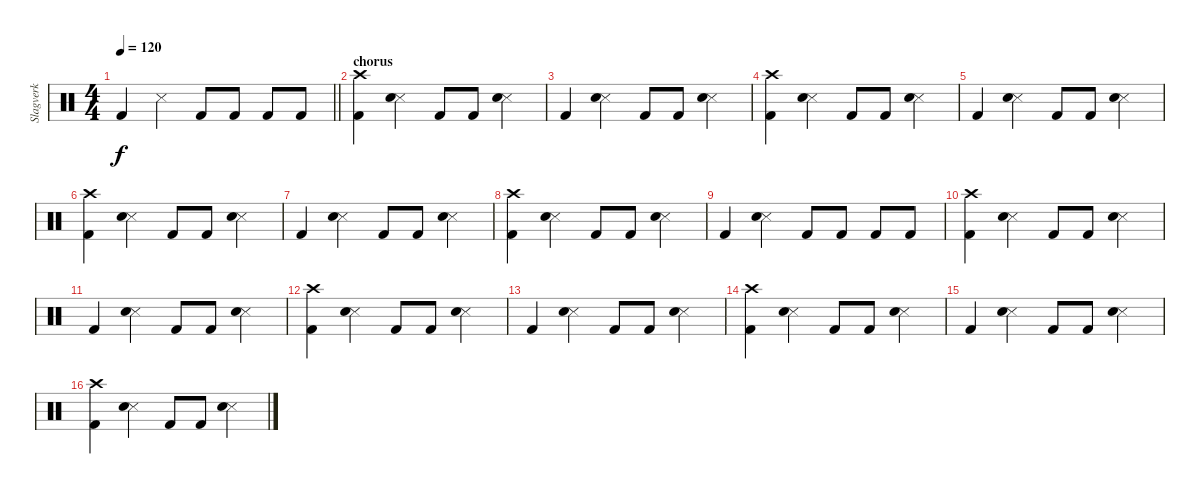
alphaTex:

\track ("Slagverk" "Slagverk") {instrument percussion}
\staff {score}
\articulation defaults
\ts (4 4)
\tempo 120
\clef neutral
\barLineRight lightlight
\ks c "Kick (hit) 2".4{dy f} "Snare (side stick) 3".4 "Kick (hit) 2".8 "Kick (hit) 2".8 "Kick (hit) 2".8 "Kick (hit) 2".8
|
\section ("" "chorus")
("Kick (hit) 2" "Crash high (hit)").4 ("Snare (side stick) 3" "Snare (hit) 2").4 "Kick (hit) 2".8 "Kick (hit) 2".8 ("Snare (side stick) 3" "Snare (hit) 2").4 |
"Kick (hit) 2".4 ("Snare (side stick) 3" "Snare (hit) 2").4 "Kick (hit) 2".8 "Kick (hit) 2".8 ("Snare (side stick) 3" "Snare (hit) 2").4 |
("Kick (hit) 2" "Crash high (hit)").4 ("Snare (side stick) 3" "Snare (hit) 2").4 "Kick (hit) 2".8 "Kick (hit) 2".8 ("Snare (side stick) 3" "Snare (hit) 2").4 |
"Kick (hit) 2".4 ("Snare (side stick) 3" "Snare (hit) 2").4 "Kick (hit) 2".8 "Kick (hit) 2".8 ("Snare (side stick) 3" "Snare (hit) 2").4 |
("Kick (hit) 2" "Crash high (hit)").4 ("Snare (side stick) 3" "Snare (hit) 2").4 "Kick (hit) 2".8 "Kick (hit) 2".8 ("Snare (side stick) 3" "Snare (hit) 2").4 |
"Kick (hit) 2".4 ("Snare (side stick) 3" "Snare (hit) 2").4 "Kick (hit) 2".8 "Kick (hit) 2".8 ("Snare (side stick) 3" "Snare (hit) 2").4 |
("Kick (hit) 2" "Crash high (hit)").4 ("Snare (side stick) 3" "Snare (hit) 2").4 "Kick (hit) 2".8 "Kick (hit) 2".8 ("Snare (side stick) 3" "Snare (hit) 2").4 |
"Kick (hit) 2".4 ("Snare (side stick) 3" "Snare (hit) 2").4 "Kick (hit) 2".8 "Kick (hit) 2".8 "Kick (hit) 2".8 "Kick (hit) 2".8 |
("Kick (hit) 2" "Crash high (hit)").4 ("Snare (side stick) 3" "Snare (hit) 2").4 "Kick (hit) 2".8 "Kick (hit) 2".8 ("Snare (side stick) 3" "Snare (hit) 2").4 |
"Kick (hit) 2".4 ("Snare (side stick) 3" "Snare (hit) 2").4 "Kick (hit) 2".8 "Kick (hit) 2".8 ("Snare (side stick) 3" "Snare (hit) 2").4 |
("Kick (hit) 2" "Crash high (hit)").4 ("Snare (side stick) 3" "Snare (hit) 2").4 "Kick (hit) 2".8 "Kick (hit) 2".8 ("Snare (side stick) 3" "Snare (hit) 2").4 |
"Kick (hit) 2".4 ("Snare (side stick) 3" "Snare (hit) 2").4 "Kick (hit) 2".8 "Kick (hit) 2".8 ("Snare (side stick) 3" "Snare (hit) 2").4 |
("Kick (hit) 2" "Crash high (hit)").4 ("Snare (side stick) 3" "Snare (hit) 2").4 "Kick (hit) 2".8 "Kick (hit) 2".8 ("Snare (side stick) 3" "Snare (hit) 2").4 |
"Kick (hit) 2".4 ("Snare (side stick) 3" "Snare (hit) 2").4 "Kick (hit) 2".8 "Kick (hit) 2".8 ("Snare (side stick) 3" "Snare (hit) 2").4 |
("Kick (hit) 2" "Crash high (hit)").4 ("Snare (side stick) 3" "Snare (hit) 2").4 "Kick (hit) 2".8 "Kick (hit) 2".8 ("Snare (side stick) 3" "Snare (hit) 2").4
